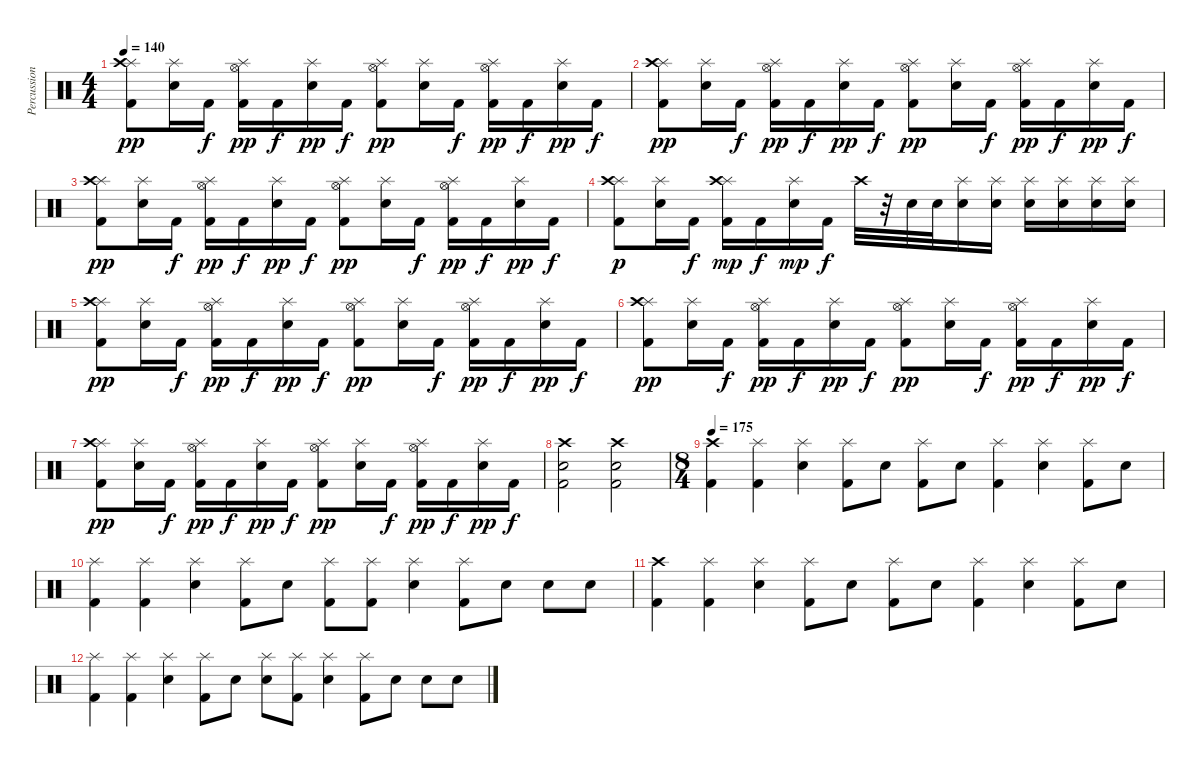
\track ("Percussion" "Percussion") {instrument percussion}
\staff {score}
\articulation defaults
\ts (4 4)
\tempo 140
\clef neutral
\ks c
("Splash (hit)" "Crash high (hit)" "Kick (hit) 2").8{dy pp} ("Splash (hit)" "Electric Snare (hit)").16 "Kick (hit) 2".16{dy f} ("Splash (hit)" "Hi-Hat (open)" "Kick (hit) 2").16{dy pp} "Kick (hit) 2".16{dy f} ("Splash (hit)" "Electric Snare (hit)").16{dy pp} "Kick (hit) 2".16{dy f} ("Splash (hit)" "Hi-Hat (open)" "Kick (hit) 2").8{dy pp} ("Splash (hit)" "Electric Snare (hit)").16 "Kick (hit) 2".16{dy f} ("Splash (hit)" "Hi-Hat (open)" "Kick (hit) 2").16{dy pp} "Kick (hit) 2".16{dy f} ("Splash (hit)" "Electric Snare (hit)").16{dy pp} "Kick (hit) 2".16{dy f} |
("Splash (hit)" "Crash high (hit)" "Kick (hit) 2").8{dy pp} ("Splash (hit)" "Electric Snare (hit)").16 "Kick (hit) 2".16{dy f} ("Splash (hit)" "Hi-Hat (open)" "Kick (hit) 2").16{dy pp} "Kick (hit) 2".16{dy f} ("Splash (hit)" "Electric Snare (hit)").16{dy pp} "Kick (hit) 2".16{dy f} ("Splash (hit)" "Hi-Hat (open)" "Kick (hit) 2").8{dy pp} ("Splash (hit)" "Electric Snare (hit)").16 "Kick (hit) 2".16{dy f} ("Splash (hit)" "Hi-Hat (open)" "Kick (hit) 2").16{dy pp} "Kick (hit) 2".16{dy f} ("Splash (hit)" "Electric Snare (hit)").16{dy pp} "Kick (hit) 2".16{dy f} |
("Splash (hit)" "Crash high (hit)" "Kick (hit) 2").8{dy pp} ("Splash (hit)" "Electric Snare (hit)").16 "Kick (hit) 2".16{dy f} ("Splash (hit)" "Hi-Hat (open)" "Kick (hit) 2").16{dy pp} "Kick (hit) 2".16{dy f} ("Splash (hit)" "Electric Snare (hit)").16{dy pp} "Kick (hit) 2".16{dy f} ("Splash (hit)" "Hi-Hat (open)" "Kick (hit) 2").8{dy pp} ("Splash (hit)" "Electric Snare (hit)").16 "Kick (hit) 2".16{dy f} ("Splash (hit)" "Hi-Hat (open)" "Kick (hit) 2").16{dy pp} "Kick (hit) 2".16{dy f} ("Splash (hit)" "Electric Snare (hit)").16{dy pp} "Kick (hit) 2".16{dy f} |
("Splash (hit)" "Crash high (hit)" "Kick (hit) 2").8{dy p} ("Splash (hit)" "Electric Snare (hit)").16 "Kick (hit) 2".16{dy f} ("Splash (hit)" "Crash high (hit)" "Kick (hit) 2").16{dy mp} "Kick (hit) 2".16{dy f} ("Splash (hit)" "Electric Snare (hit)").16{dy mp} "Kick (hit) 2".16{dy f} "Crash high (hit)".32 r.32 "Electric Snare (hit)".32 "Electric Snare (hit)".32 ("Splash (hit)" "Electric Snare (hit)").16 ("Splash (hit)" "Electric Snare (hit)").16 ("Splash (hit)" "Electric Snare (hit)").16 ("Splash (hit)" "Electric Snare (hit)").16 ("Splash (hit)" "Electric Snare (hit)").16 ("Splash (hit)" "Electric Snare (hit)").16 |
("Splash (hit)" "Crash high (hit)" "Kick (hit) 2").8{dy pp} ("Splash (hit)" "Electric Snare (hit)").16 "Kick (hit) 2".16{dy f} ("Splash (hit)" "Hi-Hat (open)" "Kick (hit) 2").16{dy pp} "Kick (hit) 2".16{dy f} ("Splash (hit)" "Electric Snare (hit)").16{dy pp} "Kick (hit) 2".16{dy f} ("Splash (hit)" "Hi-Hat (open)" "Kick (hit) 2").8{dy pp} ("Splash (hit)" "Electric Snare (hit)").16 "Kick (hit) 2".16{dy f} ("Splash (hit)" "Hi-Hat (open)" "Kick (hit) 2").16{dy pp} "Kick (hit) 2".16{dy f} ("Splash (hit)" "Electric Snare (hit)").16{dy pp} "Kick (hit) 2".16{dy f} |
("Splash (hit)" "Crash high (hit)" "Kick (hit) 2").8{dy pp} ("Splash (hit)" "Electric Snare (hit)").16 "Kick (hit) 2".16{dy f} ("Splash (hit)" "Hi-Hat (open)" "Kick (hit) 2").16{dy pp} "Kick (hit) 2".16{dy f} ("Splash (hit)" "Electric Snare (hit)").16{dy pp} "Kick (hit) 2".16{dy f} ("Splash (hit)" "Hi-Hat (open)" "Kick (hit) 2").8{dy pp} ("Splash (hit)" "Electric Snare (hit)").16 "Kick (hit) 2".16{dy f} ("Splash (hit)" "Hi-Hat (open)" "Kick (hit) 2").16{dy pp} "Kick (hit) 2".16{dy f} ("Splash (hit)" "Electric Snare (hit)").16{dy pp} "Kick (hit) 2".16{dy f} |
("Splash (hit)" "Crash high (hit)" "Kick (hit) 2").8{dy pp} ("Splash (hit)" "Electric Snare (hit)").16 "Kick (hit) 2".16{dy f} ("Splash (hit)" "Hi-Hat (open)" "Kick (hit) 2").16{dy pp} "Kick (hit) 2".16{dy f} ("Splash (hit)" "Electric Snare (hit)").16{dy pp} "Kick (hit) 2".16{dy f} ("Splash (hit)" "Hi-Hat (open)" "Kick (hit) 2").8{dy pp} ("Splash (hit)" "Electric Snare (hit)").16 "Kick (hit) 2".16{dy f} ("Splash (hit)" "Hi-Hat (open)" "Kick (hit) 2").16{dy pp} "Kick (hit) 2".16{dy f} ("Splash (hit)" "Electric Snare (hit)").16{dy pp} "Kick (hit) 2".16{dy f} |
("Crash high (hit)" "Electric Snare (hit)" "Kick (hit) 2").2 ("Electric Snare (hit)" "Crash high (hit)" "Kick (hit) 2").2 |
\ts (8 4)
\tempo 175
("Crash high (hit)" "Kick (hit) 2").4 ("Splash (hit)" "Kick (hit) 2").4 ("Splash (hit)" "Electric Snare (hit)").4 ("Splash (hit)" "Kick (hit) 2").8 "Snare (hit) 2".8 ("Splash (hit)" "Kick (hit) 2").8 "Snare (hit) 2".8 ("Splash (hit)" "Kick (hit) 2").4 ("Splash (hit)" "Electric Snare (hit)").4 ("Splash (hit)" "Kick (hit) 2").8 "Snare (hit) 2".8 |
("Splash (hit)" "Kick (hit) 2").4 ("Splash (hit)" "Kick (hit) 2").4 ("Splash (hit)" "Electric Snare (hit)").4 ("Splash (hit)" "Kick (hit) 2").8 "Snare (hit) 2".8 ("Splash (hit)" "Kick (hit) 2").8 ("Splash (hit)" "Kick (hit) 2").8 ("Splash (hit)" "Electric Snare (hit)").4 ("Splash (hit)" "Kick (hit) 2").8 "Snare (hit) 2".8 "Electric Snare (hit)".8 "Electric Snare (hit)".8 |
("Crash high (hit)" "Kick (hit) 2").4 ("Splash (hit)" "Kick (hit) 2").4 ("Splash (hit)" "Electric Snare (hit)").4 ("Splash (hit)" "Kick (hit) 2").8 "Snare (hit) 2".8 ("Splash (hit)" "Kick (hit) 2").8 "Snare (hit) 2".8 ("Splash (hit)" "Kick (hit) 2").4 ("Splash (hit)" "Electric Snare (hit)").4 ("Splash (hit)" "Kick (hit) 2").8 "Snare (hit) 2".8 |
("Splash (hit)" "Kick (hit) 2").4 ("Splash (hit)" "Kick (hit) 2").4 ("Splash (hit)" "Electric Snare (hit)").4 ("Splash (hit)" "Kick (hit) 2").8 "Snare (hit) 2".8 ("Splash (hit)" "Electric Snare (hit)").8 ("Splash (hit)" "Kick (hit) 2").8 ("Splash (hit)" "Electric Snare (hit)").4 ("Splash (hit)" "Kick (hit) 2").8 "Snare (hit) 2".8 "Electric Snare (hit)".8 "Electric Snare (hit)".8
